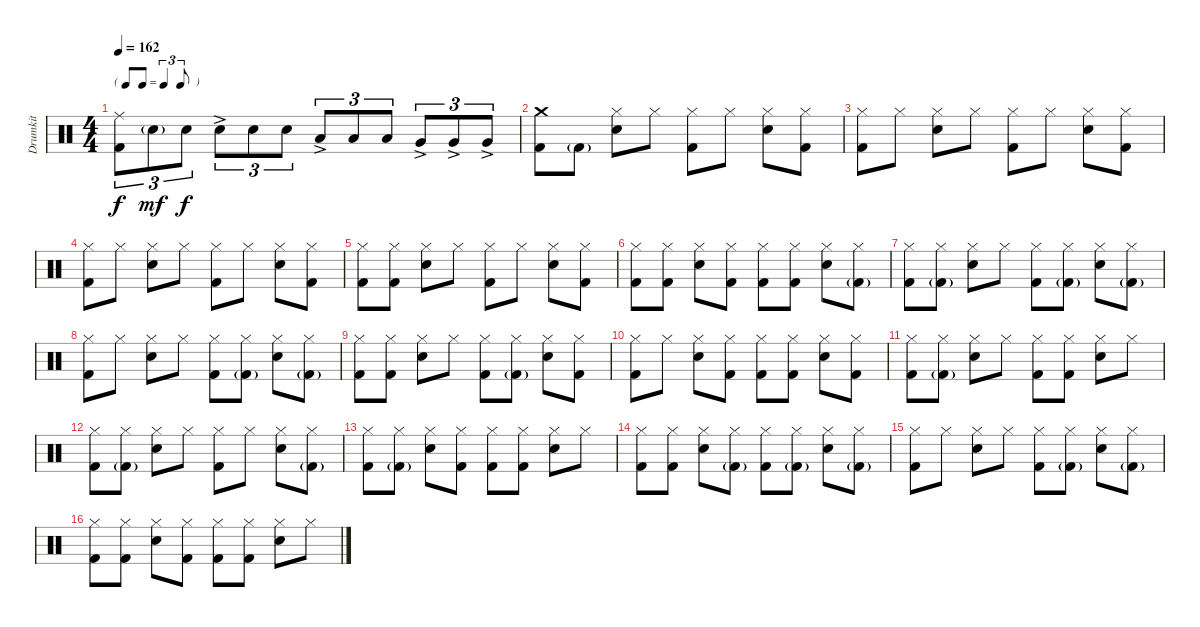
\track ("Drumkit" "Drumkit") {instrument percussion}
\staff {score}
\articulation defaults
\ts (4 4)
\tf triplet8th
\tempo 162
\clef neutral
\ks c
("Kick (hit) 2" "Ride (middle)").8{tu (3 2) dy f} "Snare (hit) 2"{g}.8{tu (3 2) dy mf} "Snare (hit) 2".8{tu (3 2) dy f} "Snare (hit) 2"{ac}.8{tu (3 2)} "Snare (hit) 2".8{tu (3 2)} "Snare (hit) 2".8{tu (3 2)} "Low Tom (hit)"{ac}.8{tu (3 2)} "Low Tom (hit)".8{tu (3 2)} "Low Tom (hit)".8{tu (3 2)} "Very Low Tom (hit)"{ac}.8{tu (3 2)} "Very Low Tom (hit)"{ac}.8{tu (3 2)} "Very Low Tom (hit)"{ac}.8{tu (3 2)} |
("Kick (hit) 2" "Crash medium (hit)").8 "Kick (hit) 2"{g}.8 ("Hi-Hat (closed)" "Snare (hit) 2").8 "Hi-Hat (closed)".8 ("Hi-Hat (closed)" "Kick (hit) 2").8 "Hi-Hat (closed)".8 ("Hi-Hat (closed)" "Snare (hit) 2").8 ("Hi-Hat (closed)" "Kick (hit) 2").8 |
("Hi-Hat (closed)" "Kick (hit) 2").8 "Hi-Hat (closed)".8 ("Hi-Hat (closed)" "Snare (hit) 2").8 "Hi-Hat (closed)".8 ("Hi-Hat (closed)" "Kick (hit) 2").8 "Hi-Hat (closed)".8 ("Hi-Hat (closed)" "Snare (hit) 2").8 ("Hi-Hat (closed)" "Kick (hit) 2").8 |
("Hi-Hat (closed)" "Kick (hit) 2").8 "Hi-Hat (closed)".8 ("Hi-Hat (closed)" "Snare (hit) 2").8 "Hi-Hat (closed)".8 ("Hi-Hat (closed)" "Kick (hit) 2").8 "Hi-Hat (closed)".8 ("Hi-Hat (closed)" "Snare (hit) 2").8 ("Hi-Hat (closed)" "Kick (hit) 2").8 |
("Hi-Hat (closed)" "Kick (hit) 2").8 ("Hi-Hat (closed)" "Kick (hit) 2").8 ("Hi-Hat (closed)" "Snare (hit) 2").8 "Hi-Hat (closed)".8 ("Hi-Hat (closed)" "Kick (hit) 2").8 "Hi-Hat (closed)".8 ("Hi-Hat (closed)" "Snare (hit) 2").8 ("Hi-Hat (closed)" "Kick (hit) 2").8 |
("Hi-Hat (closed)" "Kick (hit) 2").8 ("Hi-Hat (closed)" "Kick (hit) 2").8 ("Hi-Hat (closed)" "Snare (hit) 2").8 ("Hi-Hat (closed)" "Kick (hit) 2").8 ("Hi-Hat (closed)" "Kick (hit) 2").8 ("Hi-Hat (closed)" "Kick (hit) 2").8 ("Hi-Hat (closed)" "Snare (hit) 2").8 ("Hi-Hat (closed)" "Kick (hit) 2"{g}).8 |
("Hi-Hat (closed)" "Kick (hit) 2").8 ("Hi-Hat (closed)" "Kick (hit) 2"{g}).8 ("Hi-Hat (closed)" "Snare (hit) 2").8 "Hi-Hat (closed)".8 ("Hi-Hat (closed)" "Kick (hit) 2").8 ("Hi-Hat (closed)" "Kick (hit) 2"{g}).8 ("Hi-Hat (closed)" "Snare (hit) 2").8 ("Hi-Hat (closed)" "Kick (hit) 2"{g}).8 |
("Hi-Hat (closed)" "Kick (hit) 2").8 "Hi-Hat (closed)".8 ("Hi-Hat (closed)" "Snare (hit) 2").8 "Hi-Hat (closed)".8 ("Hi-Hat (closed)" "Kick (hit) 2").8 ("Hi-Hat (closed)" "Kick (hit) 2"{g}).8 ("Hi-Hat (closed)" "Snare (hit) 2").8 ("Hi-Hat (closed)" "Kick (hit) 2"{g}).8 |
("Hi-Hat (closed)" "Kick (hit) 2").8 ("Hi-Hat (closed)" "Kick (hit) 2").8 ("Hi-Hat (closed)" "Snare (hit) 2").8 "Hi-Hat (closed)".8 ("Hi-Hat (closed)" "Kick (hit) 2").8 ("Hi-Hat (closed)" "Kick (hit) 2"{g}).8 ("Hi-Hat (closed)" "Snare (hit) 2").8 ("Hi-Hat (closed)" "Kick (hit) 2").8 |
("Hi-Hat (closed)" "Kick (hit) 2").8 "Hi-Hat (closed)".8 ("Hi-Hat (closed)" "Snare (hit) 2").8 ("Hi-Hat (closed)" "Kick (hit) 2").8 ("Hi-Hat (closed)" "Kick (hit) 2").8 ("Hi-Hat (closed)" "Kick (hit) 2").8 ("Hi-Hat (closed)" "Snare (hit) 2").8 ("Hi-Hat (closed)" "Kick (hit) 2").8 |
("Hi-Hat (closed)" "Kick (hit) 2").8 ("Hi-Hat (closed)" "Kick (hit) 2"{g}).8 ("Hi-Hat (closed)" "Snare (hit) 2").8 "Hi-Hat (closed)".8 ("Hi-Hat (closed)" "Kick (hit) 2").8 ("Hi-Hat (closed)" "Kick (hit) 2").8 ("Hi-Hat (closed)" "Snare (hit) 2").8 "Hi-Hat (closed)".8 |
("Hi-Hat (closed)" "Kick (hit) 2").8 ("Hi-Hat (closed)" "Kick (hit) 2"{g}).8 ("Hi-Hat (closed)" "Snare (hit) 2").8 "Hi-Hat (closed)".8 ("Hi-Hat (closed)" "Kick (hit) 2").8 "Hi-Hat (closed)".8 ("Hi-Hat (closed)" "Snare (hit) 2").8 ("Hi-Hat (closed)" "Kick (hit) 2"{g}).8 |
("Hi-Hat (closed)" "Kick (hit) 2").8 ("Hi-Hat (closed)" "Kick (hit) 2"{g}).8 ("Hi-Hat (closed)" "Snare (hit) 2").8 ("Hi-Hat (closed)" "Kick (hit) 2").8 ("Hi-Hat (closed)" "Kick (hit) 2").8 ("Hi-Hat (closed)" "Kick (hit) 2").8 ("Hi-Hat (closed)" "Snare (hit) 2").8 "Hi-Hat (closed)".8 |
("Hi-Hat (closed)" "Kick (hit) 2").8 ("Hi-Hat (closed)" "Kick (hit) 2").8 ("Hi-Hat (closed)" "Snare (hit) 2").8 ("Hi-Hat (closed)" "Kick (hit) 2"{g}).8 ("Hi-Hat (closed)" "Kick (hit) 2").8 ("Hi-Hat (closed)" "Kick (hit) 2"{g}).8 ("Hi-Hat (closed)" "Snare (hit) 2").8 ("Hi-Hat (closed)" "Kick (hit) 2"{g}).8 |
("Hi-Hat (closed)" "Kick (hit) 2").8 "Hi-Hat (closed)".8 ("Hi-Hat (closed)" "Snare (hit) 2").8 "Hi-Hat (closed)".8 ("Hi-Hat (closed)" "Kick (hit) 2").8 ("Hi-Hat (closed)" "Kick (hit) 2"{g}).8 ("Hi-Hat (closed)" "Snare (hit) 2").8 ("Hi-Hat (closed)" "Kick (hit) 2"{g}).8 |
("Hi-Hat (closed)" "Kick (hit) 2").8 ("Hi-Hat (closed)" "Kick (hit) 2").8 ("Hi-Hat (closed)" "Snare (hit) 2").8 ("Hi-Hat (closed)" "Kick (hit) 2").8 ("Hi-Hat (closed)" "Kick (hit) 2").8 ("Hi-Hat (closed)" "Kick (hit) 2").8 ("Hi-Hat (closed)" "Snare (hit) 2").8 "Hi-Hat (closed)".8
